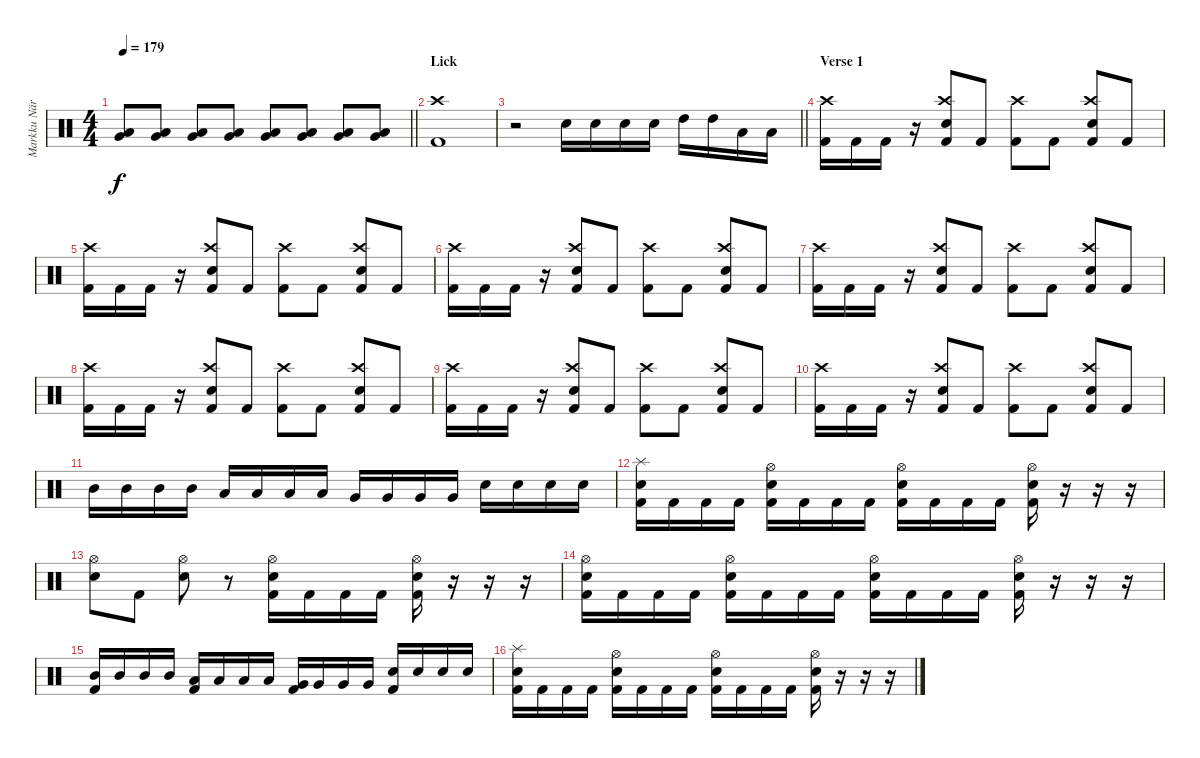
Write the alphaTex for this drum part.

\track ("Markku Näreneva (Drums)" "Markku När") {instrument percussion}
\staff {score}
\articulation defaults
\ts (4 4)
\tempo 179
\clef neutral
\barLineRight lightlight
\ks c
("Low Tom (hit)" "Very Low Tom (hit)").8{dy f} ("Low Tom (hit)" "Very Low Tom (hit)").8 ("Low Tom (hit)" "Very Low Tom (hit)").8 ("Low Tom (hit)" "Very Low Tom (hit)").8 ("Low Tom (hit)" "Very Low Tom (hit)").8 ("Low Tom (hit)" "Very Low Tom (hit)").8 ("Low Tom (hit)" "Very Low Tom (hit)").8 ("Low Tom (hit)" "Very Low Tom (hit)").8 |
\section ("" "Lick")
("Kick (hit) 2" "Crash high (hit)").1 |
\barLineRight lightlight
r.2 "Snare (hit) 2".16 "Snare (hit) 2".16 "Snare (hit) 2".16 "Snare (hit) 2".16 "High Tom (hit)".16 "High Tom (hit)".16 "Low Tom (hit)".16 "Low Tom (hit)".16 |
\section ("" "Verse 1")
("Kick (hit) 2" "Crash high (hit)").16 "Kick (hit) 2".16 "Kick (hit) 2".16 r.16 ("Kick (hit) 2" "Snare (hit) 2" "Crash high (hit)").8 "Kick (hit) 2".8 ("Kick (hit) 2" "Crash high (hit)").8 "Kick (hit) 2".8 ("Kick (hit) 2" "Snare (hit) 2" "Crash high (hit)").8 "Kick (hit) 2".8 |
("Kick (hit) 2" "Crash high (hit)").16 "Kick (hit) 2".16 "Kick (hit) 2".16 r.16 ("Kick (hit) 2" "Snare (hit) 2" "Crash high (hit)").8 "Kick (hit) 2".8 ("Kick (hit) 2" "Crash high (hit)").8 "Kick (hit) 2".8 ("Kick (hit) 2" "Snare (hit) 2" "Crash high (hit)").8 "Kick (hit) 2".8 |
("Kick (hit) 2" "Crash high (hit)").16 "Kick (hit) 2".16 "Kick (hit) 2".16 r.16 ("Kick (hit) 2" "Snare (hit) 2" "Crash high (hit)").8 "Kick (hit) 2".8 ("Kick (hit) 2" "Crash high (hit)").8 "Kick (hit) 2".8 ("Kick (hit) 2" "Snare (hit) 2" "Crash high (hit)").8 "Kick (hit) 2".8 |
("Kick (hit) 2" "Crash high (hit)").16 "Kick (hit) 2".16 "Kick (hit) 2".16 r.16 ("Kick (hit) 2" "Snare (hit) 2" "Crash high (hit)").8 "Kick (hit) 2".8 ("Kick (hit) 2" "Crash high (hit)").8 "Kick (hit) 2".8 ("Kick (hit) 2" "Snare (hit) 2" "Crash high (hit)").8 "Kick (hit) 2".8 |
("Kick (hit) 2" "Crash high (hit)").16 "Kick (hit) 2".16 "Kick (hit) 2".16 r.16 ("Kick (hit) 2" "Snare (hit) 2" "Crash high (hit)").8 "Kick (hit) 2".8 ("Kick (hit) 2" "Crash high (hit)").8 "Kick (hit) 2".8 ("Kick (hit) 2" "Snare (hit) 2" "Crash high (hit)").8 "Kick (hit) 2".8 |
("Kick (hit) 2" "Crash high (hit)").16 "Kick (hit) 2".16 "Kick (hit) 2".16 r.16 ("Kick (hit) 2" "Snare (hit) 2" "Crash high (hit)").8 "Kick (hit) 2".8 ("Kick (hit) 2" "Crash high (hit)").8 "Kick (hit) 2".8 ("Kick (hit) 2" "Snare (hit) 2" "Crash high (hit)").8 "Kick (hit) 2".8 |
("Kick (hit) 2" "Crash high (hit)").16 "Kick (hit) 2".16 "Kick (hit) 2".16 r.16 ("Kick (hit) 2" "Snare (hit) 2" "Crash high (hit)").8 "Kick (hit) 2".8 ("Kick (hit) 2" "Crash high (hit)").8 "Kick (hit) 2".8 ("Kick (hit) 2" "Snare (hit) 2" "Crash high (hit)").8 "Kick (hit) 2".8 |
"Mid Tom (hit)".16 "Mid Tom (hit)".16 "Mid Tom (hit)".16 "Mid Tom (hit)".16 "Low Tom (hit)".16 "Low Tom (hit)".16 "Low Tom (hit)".16 "Low Tom (hit)".16 "Very Low Tom (hit)".16 "Very Low Tom (hit)".16 "Very Low Tom (hit)".16 "Very Low Tom (hit)".16 "Snare (hit) 2".16 "Snare (hit) 2".16 "Snare (hit) 2".16 "Snare (hit) 2".16 |
("Kick (hit) 2" "Snare (hit) 2" "Splash (hit)").16 "Kick (hit) 2".16 "Kick (hit) 2".16 "Kick (hit) 2".16 ("Kick (hit) 2" "Snare (hit) 2" "Hi-Hat (open)").16 "Kick (hit) 2".16 "Kick (hit) 2".16 "Kick (hit) 2".16 ("Kick (hit) 2" "Snare (hit) 2" "Hi-Hat (open)").16 "Kick (hit) 2".16 "Kick (hit) 2".16 "Kick (hit) 2".16 ("Kick (hit) 2" "Snare (hit) 2" "Hi-Hat (open)").16 r.16 r.16 r.16 |
("Snare (hit) 2" "Hi-Hat (open)").8 "Kick (hit) 2".8 ("Snare (hit) 2" "Hi-Hat (open)").8 r.8 ("Kick (hit) 2" "Snare (hit) 2" "Hi-Hat (open)").16 "Kick (hit) 2".16 "Kick (hit) 2".16 "Kick (hit) 2".16 ("Kick (hit) 2" "Snare (hit) 2" "Hi-Hat (open)").16 r.16 r.16 r.16 |
("Kick (hit) 2" "Snare (hit) 2" "Hi-Hat (open)").16 "Kick (hit) 2".16 "Kick (hit) 2".16 "Kick (hit) 2".16 ("Kick (hit) 2" "Snare (hit) 2" "Hi-Hat (open)").16 "Kick (hit) 2".16 "Kick (hit) 2".16 "Kick (hit) 2".16 ("Kick (hit) 2" "Snare (hit) 2" "Hi-Hat (open)").16 "Kick (hit) 2".16 "Kick (hit) 2".16 "Kick (hit) 2".16 ("Kick (hit) 2" "Snare (hit) 2" "Hi-Hat (open)").16 r.16 r.16 r.16 |
("Kick (hit) 2" "Mid Tom (hit)").16 "Mid Tom (hit)".16 "Mid Tom (hit)".16 "Mid Tom (hit)".16 ("Kick (hit) 2" "Low Tom (hit)").16 "Low Tom (hit)".16 "Low Tom (hit)".16 "Low Tom (hit)".16 ("Kick (hit) 2" "Very Low Tom (hit)").16 "Very Low Tom (hit)".16 "Very Low Tom (hit)".16 "Very Low Tom (hit)".16 ("Kick (hit) 2" "Snare (hit) 2").16 "Snare (hit) 2".16 "Snare (hit) 2".16 "Snare (hit) 2".16 |
("Kick (hit) 2" "Snare (hit) 2" "Splash (hit)").16 "Kick (hit) 2".16 "Kick (hit) 2".16 "Kick (hit) 2".16 ("Kick (hit) 2" "Snare (hit) 2" "Hi-Hat (open)").16 "Kick (hit) 2".16 "Kick (hit) 2".16 "Kick (hit) 2".16 ("Kick (hit) 2" "Snare (hit) 2" "Hi-Hat (open)").16 "Kick (hit) 2".16 "Kick (hit) 2".16 "Kick (hit) 2".16 ("Kick (hit) 2" "Snare (hit) 2" "Hi-Hat (open)").16 r.16 r.16 r.16
